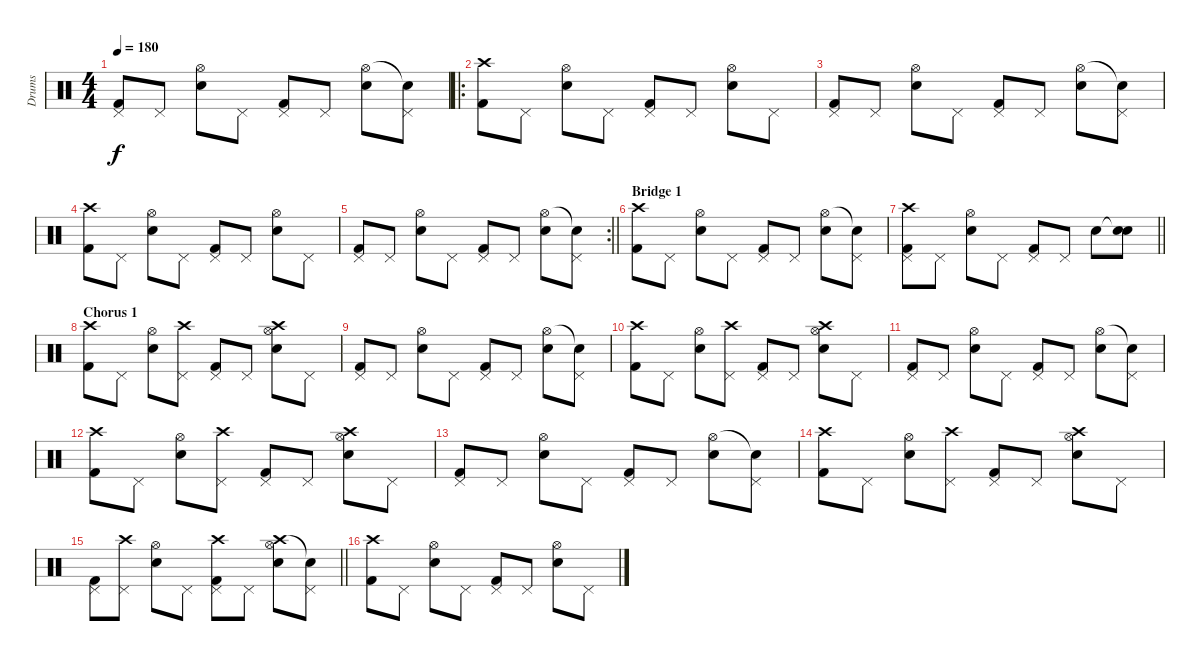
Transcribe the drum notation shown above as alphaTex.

\track ("Drums" "Drums") {instrument percussion}
\staff {score}
\articulation defaults
\ts (4 4)
\tempo 180
\clef neutral
\ks c
("Pedal Hi-Hat (hit)" "Kick (hit) 2").8{dy f} "Pedal Hi-Hat (hit)".8 ("Hi-Hat (open)" "Snare (hit) 2").8 "Pedal Hi-Hat (hit)".8 ("Pedal Hi-Hat (hit)" "Kick (hit) 2").8 "Pedal Hi-Hat (hit)".8 ("Hi-Hat (open)" "Snare (hit) 2").8 ("Snare (hit)"{t} "Pedal Hi-Hat (hit)").8 |
\ro
("Crash high (hit)" "Kick (hit) 2").8 "Pedal Hi-Hat (hit)".8 ("Hi-Hat (open)" "Snare (hit) 2").8 "Pedal Hi-Hat (hit)".8 ("Pedal Hi-Hat (hit)" "Kick (hit) 2").8 "Pedal Hi-Hat (hit)".8 ("Hi-Hat (open)" "Snare (hit) 2").8 "Pedal Hi-Hat (hit)".8 |
("Pedal Hi-Hat (hit)" "Kick (hit) 2").8 "Pedal Hi-Hat (hit)".8 ("Hi-Hat (open)" "Snare (hit) 2").8 "Pedal Hi-Hat (hit)".8 ("Pedal Hi-Hat (hit)" "Kick (hit) 2").8 "Pedal Hi-Hat (hit)".8 ("Hi-Hat (open)" "Snare (hit) 2").8 ("Snare (hit)"{t} "Pedal Hi-Hat (hit)").8 |
("Crash high (hit)" "Kick (hit) 2").8 "Pedal Hi-Hat (hit)".8 ("Hi-Hat (open)" "Snare (hit) 2").8 "Pedal Hi-Hat (hit)".8 ("Pedal Hi-Hat (hit)" "Kick (hit) 2").8 "Pedal Hi-Hat (hit)".8 ("Hi-Hat (open)" "Snare (hit) 2").8 "Pedal Hi-Hat (hit)".8 |
\rc 2
\barLineRight lightlight
("Pedal Hi-Hat (hit)" "Kick (hit) 2").8 "Pedal Hi-Hat (hit)".8 ("Hi-Hat (open)" "Snare (hit) 2").8 "Pedal Hi-Hat (hit)".8 ("Pedal Hi-Hat (hit)" "Kick (hit) 2").8 "Pedal Hi-Hat (hit)".8 ("Hi-Hat (open)" "Snare (hit) 2").8 ("Snare (hit)"{t} "Pedal Hi-Hat (hit)").8 |
\section ("" "Bridge 1")
("Crash high (hit)" "Kick (hit) 2").8 "Pedal Hi-Hat (hit)".8 ("Hi-Hat (open)" "Snare (hit) 2").8 "Pedal Hi-Hat (hit)".8 ("Pedal Hi-Hat (hit)" "Kick (hit) 2").8 "Pedal Hi-Hat (hit)".8 ("Hi-Hat (open)" "Snare (hit) 2").8 ("Snare (hit)"{t} "Pedal Hi-Hat (hit)").8 |
\barLineRight lightlight
("Crash high (hit)" "Pedal Hi-Hat (hit)" "Kick (hit) 2").8 "Pedal Hi-Hat (hit)".8 ("Hi-Hat (open)" "Snare (hit) 2").8 "Pedal Hi-Hat (hit)".8 ("Pedal Hi-Hat (hit)" "Kick (hit) 2").8 "Pedal Hi-Hat (hit)".8 "Snare (hit) 2".8 ("Snare (hit)"{t} "Snare (hit) 2").8 |
\section ("" "Chorus 1")
("Crash high (hit)" "Kick (hit) 2").8 "Pedal Hi-Hat (hit)".8 ("Hi-Hat (open)" "Snare (hit) 2").8 ("Crash high (hit)" "Pedal Hi-Hat (hit)").8 ("Pedal Hi-Hat (hit)" "Kick (hit) 2").8 "Pedal Hi-Hat (hit)".8 ("Crash high (hit)" "Hi-Hat (open)" "Snare (hit) 2").8 "Pedal Hi-Hat (hit)".8 |
("Pedal Hi-Hat (hit)" "Kick (hit) 2").8 "Pedal Hi-Hat (hit)".8 ("Hi-Hat (open)" "Snare (hit) 2").8 "Pedal Hi-Hat (hit)".8 ("Pedal Hi-Hat (hit)" "Kick (hit) 2").8 "Pedal Hi-Hat (hit)".8 ("Hi-Hat (open)" "Snare (hit) 2").8 ("Snare (hit)"{t} "Pedal Hi-Hat (hit)").8 |
("Crash high (hit)" "Kick (hit) 2").8 "Pedal Hi-Hat (hit)".8 ("Hi-Hat (open)" "Snare (hit) 2").8 ("Crash high (hit)" "Pedal Hi-Hat (hit)").8 ("Pedal Hi-Hat (hit)" "Kick (hit) 2").8 "Pedal Hi-Hat (hit)".8 ("Crash high (hit)" "Hi-Hat (open)" "Snare (hit) 2").8 "Pedal Hi-Hat (hit)".8 |
("Pedal Hi-Hat (hit)" "Kick (hit) 2").8 "Pedal Hi-Hat (hit)".8 ("Hi-Hat (open)" "Snare (hit) 2").8 "Pedal Hi-Hat (hit)".8 ("Pedal Hi-Hat (hit)" "Kick (hit) 2").8 "Pedal Hi-Hat (hit)".8 ("Hi-Hat (open)" "Snare (hit) 2").8 ("Snare (hit)"{t} "Pedal Hi-Hat (hit)").8 |
("Crash high (hit)" "Kick (hit) 2").8 "Pedal Hi-Hat (hit)".8 ("Hi-Hat (open)" "Snare (hit) 2").8 ("Crash high (hit)" "Pedal Hi-Hat (hit)").8 ("Pedal Hi-Hat (hit)" "Kick (hit) 2").8 "Pedal Hi-Hat (hit)".8 ("Crash high (hit)" "Hi-Hat (open)" "Snare (hit) 2").8 "Pedal Hi-Hat (hit)".8 |
("Pedal Hi-Hat (hit)" "Kick (hit) 2").8 "Pedal Hi-Hat (hit)".8 ("Hi-Hat (open)" "Snare (hit) 2").8 "Pedal Hi-Hat (hit)".8 ("Pedal Hi-Hat (hit)" "Kick (hit) 2").8 "Pedal Hi-Hat (hit)".8 ("Hi-Hat (open)" "Snare (hit) 2").8 ("Snare (hit)"{t} "Pedal Hi-Hat (hit)").8 |
("Crash high (hit)" "Kick (hit) 2").8 "Pedal Hi-Hat (hit)".8 ("Hi-Hat (open)" "Snare (hit) 2").8 ("Crash high (hit)" "Pedal Hi-Hat (hit)").8 ("Pedal Hi-Hat (hit)" "Kick (hit) 2").8 "Pedal Hi-Hat (hit)".8 ("Crash high (hit)" "Hi-Hat (open)" "Snare (hit) 2").8 "Pedal Hi-Hat (hit)".8 |
\barLineRight lightlight
("Pedal Hi-Hat (hit)" "Kick (hit) 2").8 ("Crash high (hit)" "Pedal Hi-Hat (hit)").8 ("Hi-Hat (open)" "Snare (hit) 2").8 "Pedal Hi-Hat (hit)".8 ("Crash high (hit)" "Pedal Hi-Hat (hit)" "Kick (hit) 2").8 "Pedal Hi-Hat (hit)".8 ("Crash high (hit)" "Hi-Hat (open)" "Snare (hit) 2").8 ("Snare (hit)"{t} "Pedal Hi-Hat (hit)").8 |
("Crash high (hit)" "Kick (hit) 2").8 "Pedal Hi-Hat (hit)".8 ("Hi-Hat (open)" "Snare (hit) 2").8 "Pedal Hi-Hat (hit)".8 ("Pedal Hi-Hat (hit)" "Kick (hit) 2").8 "Pedal Hi-Hat (hit)".8 ("Hi-Hat (open)" "Snare (hit) 2").8 "Pedal Hi-Hat (hit)".8
